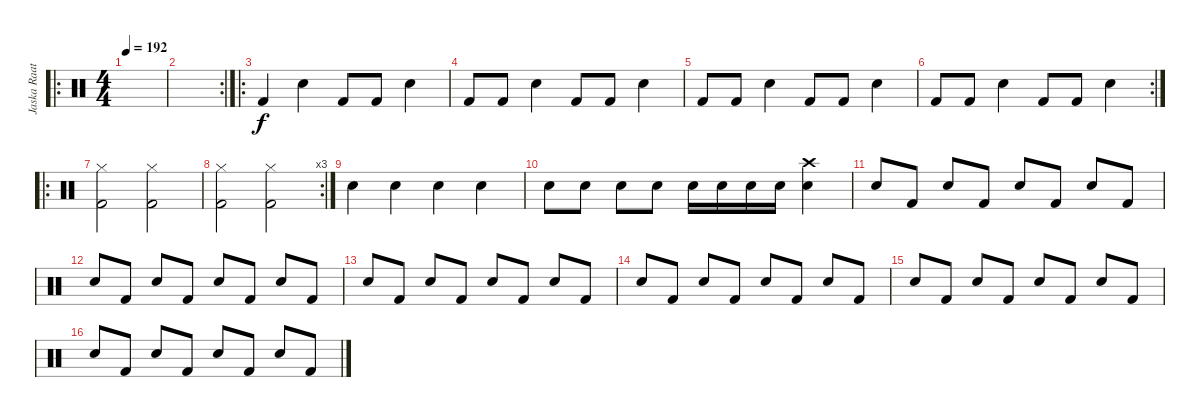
\track ("Jaska Raatikainen " "Jaska Raat") {instrument percussion}
\staff {score}
\articulation defaults
\ro
\ts (4 4)
\tempo 192
\clef neutral
\ks c
|
\rc 2
|
\ro "Kick (hit) 2".4 "Snare (hit) 2".4 "Kick (hit) 2".8 "Kick (hit) 2".8 "Snare (hit) 2".4
|
"Kick (hit) 2".8 "Kick (hit) 2".8 "Snare (hit) 2".4 "Kick (hit) 2".8 "Kick (hit) 2".8 "Snare (hit) 2".4 |
"Kick (hit) 2".8 "Kick (hit) 2".8 "Snare (hit) 2".4 "Kick (hit) 2".8 "Kick (hit) 2".8 "Snare (hit) 2".4 |
\rc 2 "Kick (hit) 2".8 "Kick (hit) 2".8 "Snare (hit) 2".4 "Kick (hit) 2".8 "Kick (hit) 2".8 "Snare (hit) 2".4
|
\ro
("Hi-Hat (closed)" "Kick (hit) 2").2 ("Hi-Hat (closed)" "Kick (hit) 2").2 |
\rc 3
("Hi-Hat (closed)" "Kick (hit) 2").2 ("Hi-Hat (closed)" "Kick (hit) 2").2 |
"Snare (hit) 2".4 "Snare (hit) 2".4 "Snare (hit) 2".4 "Snare (hit) 2".4 |
"Snare (hit) 2".8 "Snare (hit) 2".8 "Snare (hit) 2".8 "Snare (hit) 2".8 "Snare (hit) 2".16 "Snare (hit) 2".16 "Snare (hit) 2".16 "Snare (hit) 2".16 ("Crash high (hit)" "Snare (hit) 2").4 |
"Snare (hit) 2".8 "Kick (hit) 2".8 "Snare (hit) 2".8 "Kick (hit) 2".8 "Snare (hit) 2".8 "Kick (hit) 2".8 "Snare (hit) 2".8 "Kick (hit) 2".8 |
"Snare (hit) 2".8 "Kick (hit) 2".8 "Snare (hit) 2".8 "Kick (hit) 2".8 "Snare (hit) 2".8 "Kick (hit) 2".8 "Snare (hit) 2".8 "Kick (hit) 2".8 |
"Snare (hit) 2".8 "Kick (hit) 2".8 "Snare (hit) 2".8 "Kick (hit) 2".8 "Snare (hit) 2".8 "Kick (hit) 2".8 "Snare (hit) 2".8 "Kick (hit) 2".8 |
"Snare (hit) 2".8 "Kick (hit) 2".8 "Snare (hit) 2".8 "Kick (hit) 2".8 "Snare (hit) 2".8 "Kick (hit) 2".8 "Snare (hit) 2".8 "Kick (hit) 2".8 |
"Snare (hit) 2".8 "Kick (hit) 2".8 "Snare (hit) 2".8 "Kick (hit) 2".8 "Snare (hit) 2".8 "Kick (hit) 2".8 "Snare (hit) 2".8 "Kick (hit) 2".8 |
"Snare (hit) 2".8 "Kick (hit) 2".8 "Snare (hit) 2".8 "Kick (hit) 2".8 "Snare (hit) 2".8 "Kick (hit) 2".8 "Snare (hit) 2".8 "Kick (hit) 2".8
